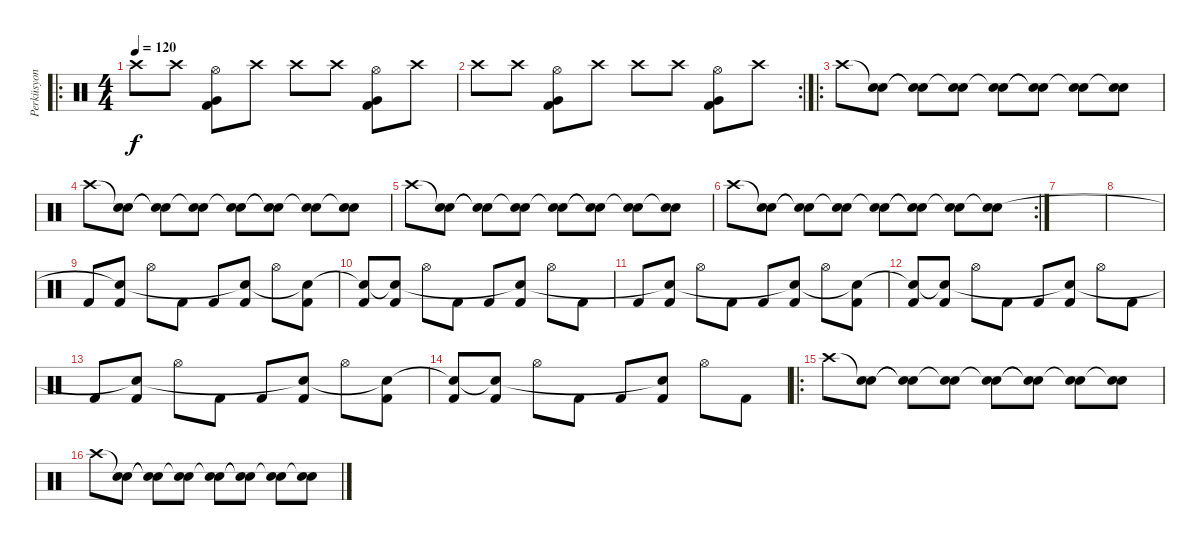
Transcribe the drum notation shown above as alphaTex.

\track ("Perküsyon" "Perküsyon") {instrument percussion}
\staff {score}
\articulation defaults
\ro
\ts (4 4)
\tempo 120
\clef neutral
\ks c "Crash high (hit)".8{dy f} "Crash high (hit)".8
("Hi-Hat (open)" "Kick (hit) 2" "Very Low Tom (hit)").8 "Crash high (hit)".8 "Crash high (hit)".8 "Crash high (hit)".8 ("Hi-Hat (open)" "Kick (hit) 2" "Very Low Tom (hit)").8 "Crash high (hit)".8 |
\rc 2 "Crash high (hit)".8 "Crash high (hit)".8
("Hi-Hat (open)" "Kick (hit) 2" "Very Low Tom (hit)").8 "Crash high (hit)".8 "Crash high (hit)".8 "Crash high (hit)".8 ("Hi-Hat (open)" "Kick (hit) 2" "Very Low Tom (hit)").8 "Crash high (hit)".8 |
\ro "Crash high (hit)".8
("Snare (hit)"{t} "Snare (hit) 2").8 ("Snare (hit)"{t} "Electric Snare (hit)"{t}).8 ("Snare (hit)"{t} "Snare (hit) 2").8 ("Snare (hit)"{t} "Electric Snare (hit)").8 ("Snare (hit)"{t} "Snare (hit)"{t}).8 ("Snare (hit)"{t} "Electric Snare (hit)").8 ("Snare (hit)"{t} "Snare (hit) 2").8 |
"Crash high (hit)".8 ("Snare (hit)"{t} "Snare (hit) 2").8 ("Snare (hit)"{t} "Electric Snare (hit)"{t}).8 ("Snare (hit)"{t} "Snare (hit) 2").8 ("Snare (hit)"{t} "Electric Snare (hit)").8 ("Snare (hit)"{t} "Snare (hit)"{t}).8 ("Snare (hit)"{t} "Electric Snare (hit)").8 ("Snare (hit)"{t} "Snare (hit) 2").8 |
"Crash high (hit)".8 ("Snare (hit)"{t} "Snare (hit) 2").8 ("Snare (hit)"{t} "Electric Snare (hit)"{t}).8 ("Snare (hit)"{t} "Snare (hit) 2").8 ("Snare (hit)"{t} "Electric Snare (hit)").8 ("Snare (hit)"{t} "Snare (hit)"{t}).8 ("Snare (hit)"{t} "Electric Snare (hit)").8 ("Snare (hit)"{t} "Snare (hit) 2").8 |
\rc 2 "Crash high (hit)".8
("Snare (hit)"{t} "Snare (hit) 2").8 ("Snare (hit)"{t} "Electric Snare (hit)"{t}).8 ("Snare (hit)"{t} "Snare (hit) 2").8 ("Snare (hit)"{t} "Electric Snare (hit)").8 ("Snare (hit)"{t} "Snare (hit)"{t}).8 ("Snare (hit)"{t} "Electric Snare (hit)").8 ("Snare (hit)"{t} "Snare (hit) 2").8 |
|
|
"Kick (hit) 2".8 ("Kick (hit) 2" "Snare (hit)"{t}).8 "Hi-Hat (open)".8 "Kick (hit) 2".8 "Kick (hit) 2".8 ("Kick (hit) 2" "Snare (hit)"{t}).8 "Hi-Hat (open)".8 ("Kick (hit) 2" "Snare (hit)"{t}).8 |
("Kick (hit) 2" "Snare (hit)"{t}).8 ("Kick (hit) 2" "Snare (hit)"{t}).8 "Hi-Hat (open)".8 "Kick (hit) 2".8 "Kick (hit) 2".8 ("Kick (hit) 2" "Snare (hit)"{t}).8 "Hi-Hat (open)".8 "Kick (hit) 2".8 |
"Kick (hit) 2".8 ("Kick (hit) 2" "Snare (hit)"{t}).8 "Hi-Hat (open)".8 "Kick (hit) 2".8 "Kick (hit) 2".8 ("Kick (hit) 2" "Snare (hit)"{t}).8 "Hi-Hat (open)".8 ("Kick (hit) 2" "Snare (hit)"{t}).8 |
("Kick (hit) 2" "Snare (hit)"{t}).8 ("Kick (hit) 2" "Snare (hit)"{t}).8 "Hi-Hat (open)".8 "Kick (hit) 2".8 "Kick (hit) 2".8 ("Kick (hit) 2" "Snare (hit)"{t}).8 "Hi-Hat (open)".8 "Kick (hit) 2".8 |
"Kick (hit) 2".8 ("Kick (hit) 2" "Snare (hit)"{t}).8 "Hi-Hat (open)".8 "Kick (hit) 2".8 "Kick (hit) 2".8 ("Kick (hit) 2" "Snare (hit)"{t}).8 "Hi-Hat (open)".8 ("Kick (hit) 2" "Snare (hit)"{t}).8 |
("Kick (hit) 2" "Snare (hit)"{t}).8 ("Kick (hit) 2" "Snare (hit)"{t}).8 "Hi-Hat (open)".8 "Kick (hit) 2".8 "Kick (hit) 2".8 ("Kick (hit) 2" "Snare (hit)"{t}).8 "Hi-Hat (open)".8 "Kick (hit) 2".8 |
\ro "Crash high (hit)".8
("Snare (hit)"{t} "Snare (hit) 2").8 ("Snare (hit)"{t} "Electric Snare (hit)"{t}).8 ("Snare (hit)"{t} "Snare (hit) 2").8 ("Snare (hit)"{t} "Electric Snare (hit)").8 ("Snare (hit)"{t} "Snare (hit)"{t}).8 ("Snare (hit)"{t} "Electric Snare (hit)").8 ("Snare (hit)"{t} "Snare (hit) 2").8 |
"Crash high (hit)".8 ("Snare (hit)"{t} "Snare (hit) 2").8 ("Snare (hit)"{t} "Electric Snare (hit)"{t}).8 ("Snare (hit)"{t} "Snare (hit) 2").8 ("Snare (hit)"{t} "Electric Snare (hit)").8 ("Snare (hit)"{t} "Snare (hit)"{t}).8 ("Snare (hit)"{t} "Electric Snare (hit)").8 ("Snare (hit)"{t} "Snare (hit) 2").8
